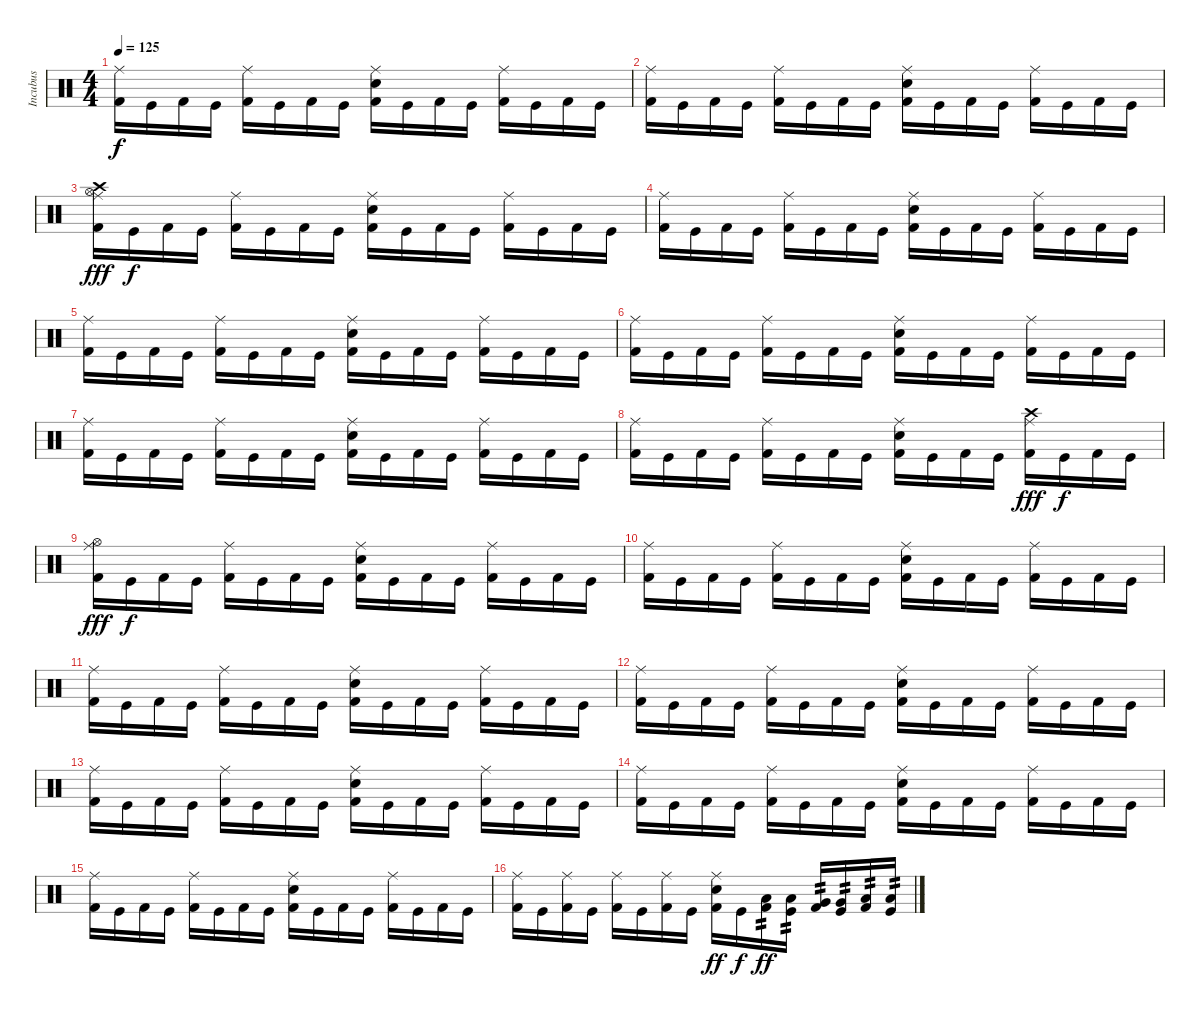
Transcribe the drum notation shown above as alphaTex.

\track ("Incubus" "Incubus") {instrument percussion}
\staff {score}
\articulation defaults
\ts (4 4)
\tempo 125
\clef neutral
\ks c
("Ride (middle)" "Kick (hit) 2").16{dy f} "Kick (hit)".16 "Kick (hit) 2".16 "Kick (hit)".16 ("Ride (middle)" "Kick (hit) 2").16 "Kick (hit)".16 "Kick (hit) 2".16 "Kick (hit)".16 ("Ride (middle)" "Snare (hit) 2" "Kick (hit) 2").16 "Kick (hit)".16 "Kick (hit) 2".16 "Kick (hit)".16 ("Ride (middle)" "Kick (hit) 2").16 "Kick (hit)".16 "Kick (hit) 2".16 "Kick (hit)".16 |
("Ride (middle)" "Kick (hit) 2").16 "Kick (hit)".16 "Kick (hit) 2".16 "Kick (hit)".16 ("Ride (middle)" "Kick (hit) 2").16 "Kick (hit)".16 "Kick (hit) 2".16 "Kick (hit)".16 ("Ride (middle)" "Snare (hit) 2" "Kick (hit) 2").16 "Kick (hit)".16 "Kick (hit) 2".16 "Kick (hit)".16 ("Ride (middle)" "Kick (hit) 2").16 "Kick (hit)".16 "Kick (hit) 2".16 "Kick (hit)".16 |
("Hi-Hat (open)" "Crash high (hit)" "Ride (middle)" "Kick (hit) 2").16{dy fff} "Kick (hit)".16{dy f} "Kick (hit) 2".16 "Kick (hit)".16 ("Ride (middle)" "Kick (hit) 2").16 "Kick (hit)".16 "Kick (hit) 2".16 "Kick (hit)".16 ("Ride (middle)" "Snare (hit) 2" "Kick (hit) 2").16 "Kick (hit)".16 "Kick (hit) 2".16 "Kick (hit)".16 ("Ride (middle)" "Kick (hit) 2").16 "Kick (hit)".16 "Kick (hit) 2".16 "Kick (hit)".16 |
("Ride (middle)" "Kick (hit) 2").16 "Kick (hit)".16 "Kick (hit) 2".16 "Kick (hit)".16 ("Ride (middle)" "Kick (hit) 2").16 "Kick (hit)".16 "Kick (hit) 2".16 "Kick (hit)".16 ("Ride (middle)" "Snare (hit) 2" "Kick (hit) 2").16 "Kick (hit)".16 "Kick (hit) 2".16 "Kick (hit)".16 ("Ride (middle)" "Kick (hit) 2").16 "Kick (hit)".16 "Kick (hit) 2".16 "Kick (hit)".16 |
("Ride (middle)" "Kick (hit) 2").16 "Kick (hit)".16 "Kick (hit) 2".16 "Kick (hit)".16 ("Ride (middle)" "Kick (hit) 2").16 "Kick (hit)".16 "Kick (hit) 2".16 "Kick (hit)".16 ("Ride (middle)" "Snare (hit) 2" "Kick (hit) 2").16 "Kick (hit)".16 "Kick (hit) 2".16 "Kick (hit)".16 ("Ride (middle)" "Kick (hit) 2").16 "Kick (hit)".16 "Kick (hit) 2".16 "Kick (hit)".16 |
("Ride (middle)" "Kick (hit) 2").16 "Kick (hit)".16 "Kick (hit) 2".16 "Kick (hit)".16 ("Ride (middle)" "Kick (hit) 2").16 "Kick (hit)".16 "Kick (hit) 2".16 "Kick (hit)".16 ("Ride (middle)" "Snare (hit) 2" "Kick (hit) 2").16 "Kick (hit)".16 "Kick (hit) 2".16 "Kick (hit)".16 ("Ride (middle)" "Kick (hit) 2").16 "Kick (hit)".16 "Kick (hit) 2".16 "Kick (hit)".16 |
("Ride (middle)" "Kick (hit) 2").16 "Kick (hit)".16 "Kick (hit) 2".16 "Kick (hit)".16 ("Ride (middle)" "Kick (hit) 2").16 "Kick (hit)".16 "Kick (hit) 2".16 "Kick (hit)".16 ("Ride (middle)" "Snare (hit) 2" "Kick (hit) 2").16 "Kick (hit)".16 "Kick (hit) 2".16 "Kick (hit)".16 ("Ride (middle)" "Kick (hit) 2").16 "Kick (hit)".16 "Kick (hit) 2".16 "Kick (hit)".16 |
("Ride (middle)" "Kick (hit) 2").16 "Kick (hit)".16 "Kick (hit) 2".16 "Kick (hit)".16 ("Ride (middle)" "Kick (hit) 2").16 "Kick (hit)".16 "Kick (hit) 2".16 "Kick (hit)".16 ("Ride (middle)" "Snare (hit) 2" "Kick (hit) 2").16 "Kick (hit)".16 "Kick (hit) 2".16 "Kick (hit)".16 ("Crash high (hit)" "Ride (middle)" "Kick (hit) 2").16{dy fff} "Kick (hit)".16{dy f} "Kick (hit) 2".16 "Kick (hit)".16 |
("Hi-Hat (open)" "Ride (middle)" "Kick (hit) 2").16{dy fff} "Kick (hit)".16{dy f} "Kick (hit) 2".16 "Kick (hit)".16 ("Ride (middle)" "Kick (hit) 2").16 "Kick (hit)".16 "Kick (hit) 2".16 "Kick (hit)".16 ("Ride (middle)" "Snare (hit) 2" "Kick (hit) 2").16 "Kick (hit)".16 "Kick (hit) 2".16 "Kick (hit)".16 ("Ride (middle)" "Kick (hit) 2").16 "Kick (hit)".16 "Kick (hit) 2".16 "Kick (hit)".16 |
("Ride (middle)" "Kick (hit) 2").16 "Kick (hit)".16 "Kick (hit) 2".16 "Kick (hit)".16 ("Ride (middle)" "Kick (hit) 2").16 "Kick (hit)".16 "Kick (hit) 2".16 "Kick (hit)".16 ("Ride (middle)" "Snare (hit) 2" "Kick (hit) 2").16 "Kick (hit)".16 "Kick (hit) 2".16 "Kick (hit)".16 ("Ride (middle)" "Kick (hit) 2").16 "Kick (hit)".16 "Kick (hit) 2".16 "Kick (hit)".16 |
("Ride (middle)" "Kick (hit) 2").16 "Kick (hit)".16 "Kick (hit) 2".16 "Kick (hit)".16 ("Ride (middle)" "Kick (hit) 2").16 "Kick (hit)".16 "Kick (hit) 2".16 "Kick (hit)".16 ("Ride (middle)" "Snare (hit) 2" "Kick (hit) 2").16 "Kick (hit)".16 "Kick (hit) 2".16 "Kick (hit)".16 ("Ride (middle)" "Kick (hit) 2").16 "Kick (hit)".16 "Kick (hit) 2".16 "Kick (hit)".16 |
("Ride (middle)" "Kick (hit) 2").16 "Kick (hit)".16 "Kick (hit) 2".16 "Kick (hit)".16 ("Ride (middle)" "Kick (hit) 2").16 "Kick (hit)".16 "Kick (hit) 2".16 "Kick (hit)".16 ("Ride (middle)" "Snare (hit) 2" "Kick (hit) 2").16 "Kick (hit)".16 "Kick (hit) 2".16 "Kick (hit)".16 ("Ride (middle)" "Kick (hit) 2").16 "Kick (hit)".16 "Kick (hit) 2".16 "Kick (hit)".16 |
("Ride (middle)" "Kick (hit) 2").16 "Kick (hit)".16 "Kick (hit) 2".16 "Kick (hit)".16 ("Ride (middle)" "Kick (hit) 2").16 "Kick (hit)".16 "Kick (hit) 2".16 "Kick (hit)".16 ("Ride (middle)" "Snare (hit) 2" "Kick (hit) 2").16 "Kick (hit)".16 "Kick (hit) 2".16 "Kick (hit)".16 ("Ride (middle)" "Kick (hit) 2").16 "Kick (hit)".16 "Kick (hit) 2".16 "Kick (hit)".16 |
("Ride (middle)" "Kick (hit) 2").16 "Kick (hit)".16 "Kick (hit) 2".16 "Kick (hit)".16 ("Ride (middle)" "Kick (hit) 2").16 "Kick (hit)".16 "Kick (hit) 2".16 "Kick (hit)".16 ("Ride (middle)" "Snare (hit) 2" "Kick (hit) 2").16 "Kick (hit)".16 "Kick (hit) 2".16 "Kick (hit)".16 ("Ride (middle)" "Kick (hit) 2").16 "Kick (hit)".16 "Kick (hit) 2".16 "Kick (hit)".16 |
("Ride (middle)" "Kick (hit) 2").16 "Kick (hit)".16 "Kick (hit) 2".16 "Kick (hit)".16 ("Ride (middle)" "Kick (hit) 2").16 "Kick (hit)".16 "Kick (hit) 2".16 "Kick (hit)".16 ("Ride (middle)" "Snare (hit) 2" "Kick (hit) 2").16 "Kick (hit)".16 "Kick (hit) 2".16 "Kick (hit)".16 ("Ride (middle)" "Kick (hit) 2").16 "Kick (hit)".16 "Kick (hit) 2".16 "Kick (hit)".16 |
("Ride (middle)" "Kick (hit) 2").16 "Kick (hit)".16 ("Ride (middle)" "Kick (hit) 2").16 "Kick (hit)".16 ("Ride (middle)" "Kick (hit) 2").16 "Kick (hit)".16 ("Ride (middle)" "Kick (hit) 2").16 "Kick (hit)".16 ("Ride (middle)" "Snare (hit) 2" "Kick (hit) 2").16{dy ff} "Kick (hit)".16{dy f} ("Low Tom (hit)" "Kick (hit) 2").16{tp 2 dy ff} ("Low Tom (hit)" "Kick (hit)").16{tp 2} ("Very Low Tom (hit)" "Kick (hit) 2").16{tp 2} ("Very Low Tom (hit)" "Kick (hit)").16{tp 2} ("Low Floor Tom (hit)" "Kick (hit) 2").16{tp 2} ("Low Floor Tom (hit)" "Kick (hit)").16{tp 2}
